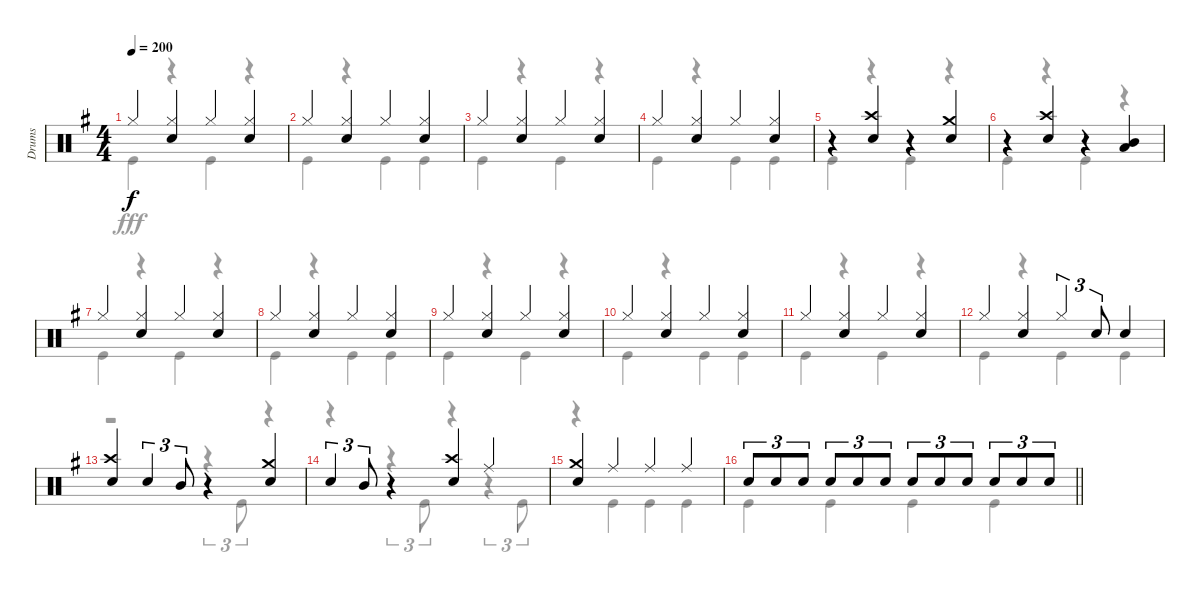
\track ("Drums" "Drums") {instrument percussion}
\staff {score}
\articulation defaults
\voice
\ts (4 4)
\tempo 200
\clef neutral
\ks g "Hi-Hat (closed)".4{dy f}
("Hi-Hat (closed)" "Snare (hit) 2").4 "Hi-Hat (closed)".4 ("Hi-Hat (closed)" "Snare (hit) 2").4 |
"Hi-Hat (closed)".4 ("Hi-Hat (closed)" "Snare (hit) 2").4 "Hi-Hat (closed)".4 ("Hi-Hat (closed)" "Snare (hit) 2").4 |
"Hi-Hat (closed)".4 ("Hi-Hat (closed)" "Snare (hit) 2").4 "Hi-Hat (closed)".4 ("Hi-Hat (closed)" "Snare (hit) 2").4 |
"Hi-Hat (closed)".4 ("Hi-Hat (closed)" "Snare (hit) 2").4 "Hi-Hat (closed)".4 ("Hi-Hat (closed)" "Snare (hit) 2").4 |
r.4 ("Crash high (hit)" "Snare (hit) 2").4 r.4 ("Crash medium (hit)" "Snare (hit) 2").4 |
r.4 ("Crash high (hit)" "Snare (hit) 2").4 r.4 ("Mid Tom (hit)" "Low Tom (hit)").4 |
"Hi-Hat (closed)".4 ("Hi-Hat (closed)" "Snare (hit) 2").4 "Hi-Hat (closed)".4 ("Hi-Hat (closed)" "Snare (hit) 2").4 |
"Hi-Hat (closed)".4 ("Hi-Hat (closed)" "Snare (hit) 2").4 "Hi-Hat (closed)".4 ("Hi-Hat (closed)" "Snare (hit) 2").4 |
"Hi-Hat (closed)".4 ("Hi-Hat (closed)" "Snare (hit) 2").4 "Hi-Hat (closed)".4 ("Hi-Hat (closed)" "Snare (hit) 2").4 |
"Hi-Hat (closed)".4 ("Hi-Hat (closed)" "Snare (hit) 2").4 "Hi-Hat (closed)".4 ("Hi-Hat (closed)" "Snare (hit) 2").4 |
"Hi-Hat (closed)".4 ("Hi-Hat (closed)" "Snare (hit) 2").4 "Hi-Hat (closed)".4 ("Hi-Hat (closed)" "Snare (hit) 2").4 |
"Hi-Hat (closed)".4 ("Hi-Hat (closed)" "Snare (hit) 2").4 "Hi-Hat (closed)".4{tu (3 2)} "Snare (hit) 2".8{tu (3 2)} "Snare (hit) 2".4 |
("Crash high (hit)" "Snare (hit) 2").4 "Snare (hit) 2".4{tu (3 2)} "Mid Tom (hit)".8{tu (3 2)} r.4 ("Crash medium (hit)" "Snare (hit) 2").4 |
"Snare (hit) 2".4{tu (3 2)} "Mid Tom (hit)".8{tu (3 2)} r.4 ("Crash high (hit)" "Snare (hit) 2").4 "Ride (middle)".4 |
("Crash medium (hit)" "Snare (hit) 2").4 "Ride (middle)".4 "Ride (middle)".4 "Ride (middle)".4 |
\barLineRight lightlight "Snare (hit) 2".8{tu (3 2)} "Snare (hit) 2".8{tu (3 2)} "Snare (hit) 2".8{tu (3 2)} "Snare (hit) 2".8{tu (3 2)} "Snare (hit) 2".8{tu (3 2)} "Snare (hit) 2".8{tu (3 2)} "Snare (hit) 2".8{tu (3 2)} "Snare (hit) 2".8{tu (3 2)} "Snare (hit) 2".8{tu (3 2)} "Snare (hit) 2".8{tu (3 2)} "Snare (hit) 2".8{tu (3 2)} "Snare (hit) 2".8{tu (3 2)}
\voice
\clef neutral
\ottava regular
\simile none
\ks g "Kick (hit)".4{dy fff}
r.4 "Kick (hit)".4 r.4 |
"Kick (hit)".4 r.4 "Kick (hit)".4 "Kick (hit)".4 |
"Kick (hit)".4 r.4 "Kick (hit)".4 r.4 |
"Kick (hit)".4 r.4 "Kick (hit)".4 "Kick (hit)".4 |
"Kick (hit)".4 r.4 "Kick (hit)".4 r.4 |
"Kick (hit)".4 r.4 "Kick (hit)".4 r.4 |
"Kick (hit)".4 r.4 "Kick (hit)".4 r.4 |
"Kick (hit)".4 r.4 "Kick (hit)".4 "Kick (hit)".4 |
"Kick (hit)".4 r.4 "Kick (hit)".4 r.4 |
"Kick (hit)".4 r.4 "Kick (hit)".4 "Kick (hit)".4 |
"Kick (hit)".4 r.4 "Kick (hit)".4 r.4 |
"Kick (hit)".4 r.4 "Kick (hit)".4 "Kick (hit)".4 |
r.2 r.4{tu (3 2)} "Kick (hit)".8{tu (3 2)} r.4 |
r.4 r.4{tu (3 2)} "Kick (hit)".8{tu (3 2)} r.4 r.4{tu (3 2)} "Kick (hit)".8{tu (3 2)} |
r.4 "Kick (hit)".4 "Kick (hit)".4 "Kick (hit)".4 |
\barLineRight lightlight "Kick (hit)".4 "Kick (hit)".4 "Kick (hit)".4 "Kick (hit)".4
